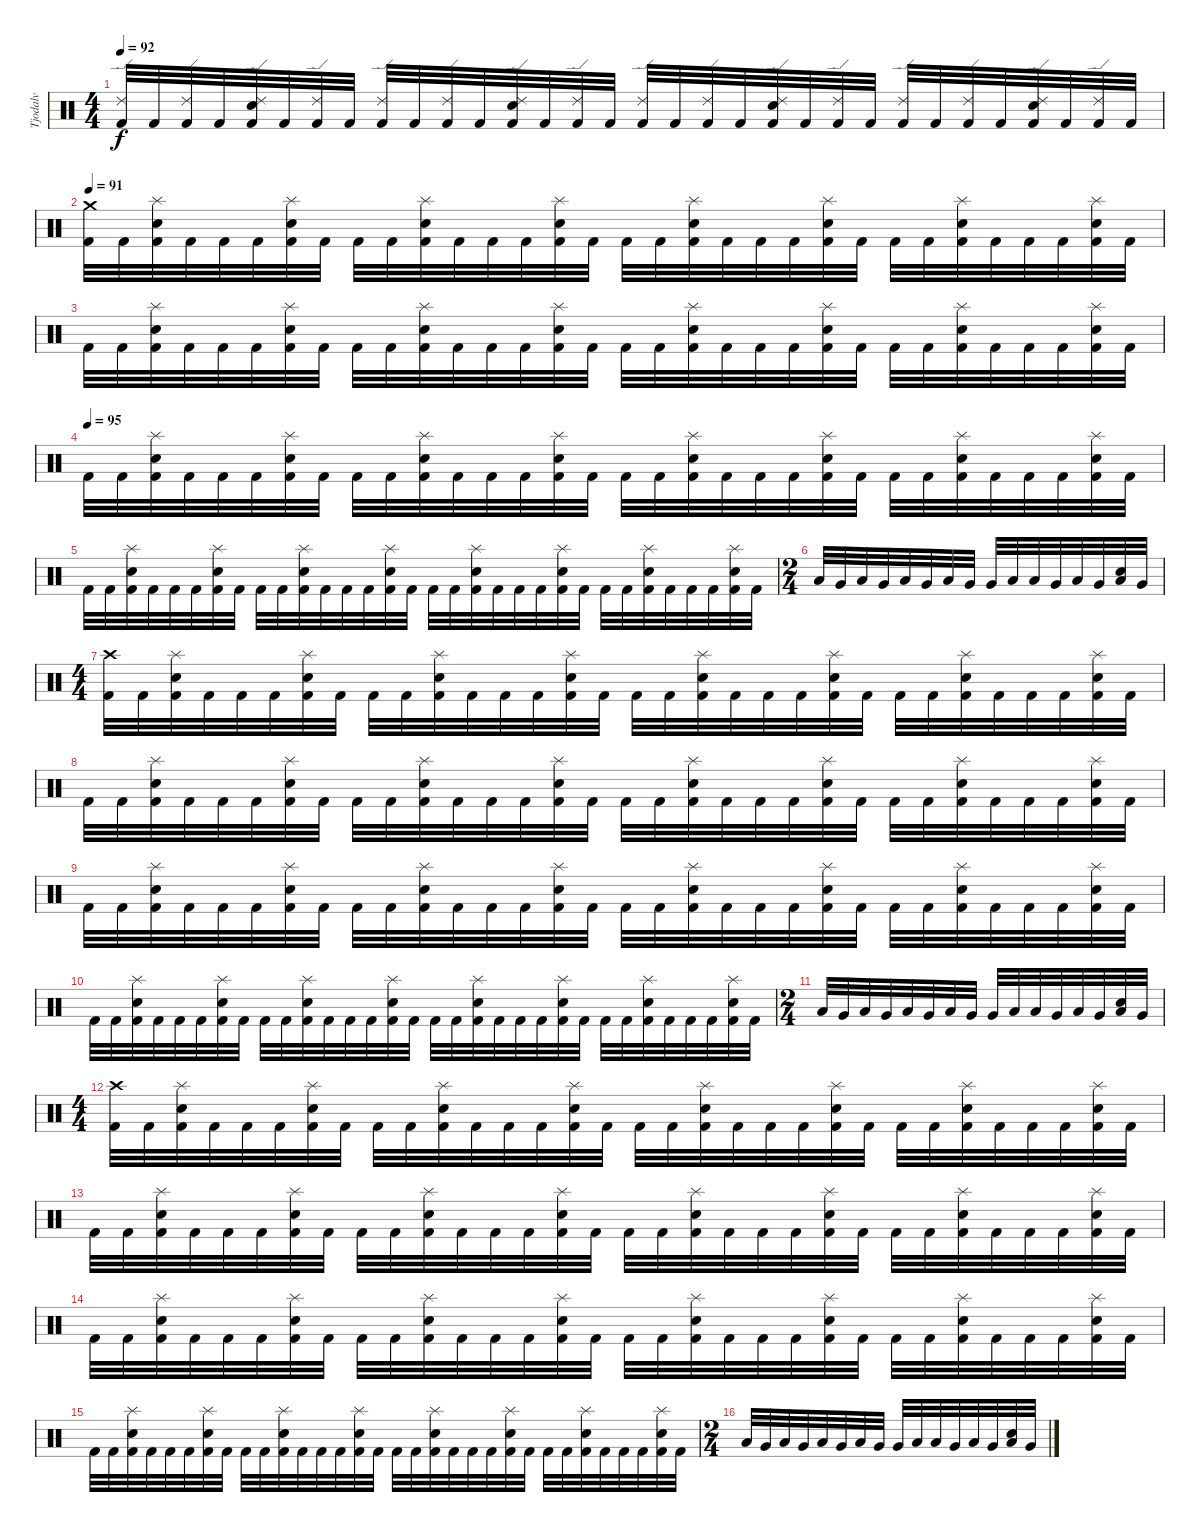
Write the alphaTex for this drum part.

\track ("Tjodalv" "Tjodalv") {instrument percussion}
\staff {score}
\articulation defaults
\ts (4 4)
\tempo 92
\clef neutral
\ks c
("Kick (hit) 2" "Ride (edge) 2").32{dy f} "Kick (hit) 2".32 ("Kick (hit) 2" "Ride (edge) 2").32 "Kick (hit) 2".32 ("Kick (hit) 2" "Snare (hit) 2" "Ride (edge) 2").32 "Kick (hit) 2".32 ("Kick (hit) 2" "Ride (edge) 2").32 "Kick (hit) 2".32 ("Kick (hit) 2" "Ride (edge) 2").32 "Kick (hit) 2".32 ("Kick (hit) 2" "Ride (edge) 2").32 "Kick (hit) 2".32 ("Kick (hit) 2" "Snare (hit) 2" "Ride (edge) 2").32 "Kick (hit) 2".32 ("Kick (hit) 2" "Ride (edge) 2").32 "Kick (hit) 2".32 ("Kick (hit) 2" "Ride (edge) 2").32 "Kick (hit) 2".32 ("Kick (hit) 2" "Ride (edge) 2").32 "Kick (hit) 2".32 ("Kick (hit) 2" "Snare (hit) 2" "Ride (edge) 2").32 "Kick (hit) 2".32 ("Kick (hit) 2" "Ride (edge) 2").32 "Kick (hit) 2".32 ("Kick (hit) 2" "Ride (edge) 2").32 "Kick (hit) 2".32 ("Kick (hit) 2" "Ride (edge) 2").32 "Kick (hit) 2".32 ("Kick (hit) 2" "Snare (hit) 2" "Ride (edge) 2").32 "Kick (hit) 2".32 ("Kick (hit) 2" "Ride (edge) 2").32 "Kick (hit) 2".32 |
\tempo 91
("Kick (hit) 2" "Crash medium (hit)").32 "Kick (hit) 2".32 ("Kick (hit) 2" "Snare (hit) 2" "Splash (hit)").32 "Kick (hit) 2".32 "Kick (hit) 2".32 "Kick (hit) 2".32 ("Kick (hit) 2" "Snare (hit) 2" "Splash (hit)").32 "Kick (hit) 2".32 "Kick (hit) 2".32 "Kick (hit) 2".32 ("Kick (hit) 2" "Snare (hit) 2" "Splash (hit)").32 "Kick (hit) 2".32 "Kick (hit) 2".32 "Kick (hit) 2".32 ("Kick (hit) 2" "Snare (hit) 2" "Splash (hit)").32 "Kick (hit) 2".32 "Kick (hit) 2".32 "Kick (hit) 2".32 ("Kick (hit) 2" "Snare (hit) 2" "Splash (hit)").32 "Kick (hit) 2".32 "Kick (hit) 2".32 "Kick (hit) 2".32 ("Kick (hit) 2" "Snare (hit) 2" "Splash (hit)").32 "Kick (hit) 2".32 "Kick (hit) 2".32 "Kick (hit) 2".32 ("Kick (hit) 2" "Snare (hit) 2" "Splash (hit)").32 "Kick (hit) 2".32 "Kick (hit) 2".32 "Kick (hit) 2".32 ("Kick (hit) 2" "Snare (hit) 2" "Splash (hit)").32 "Kick (hit) 2".32 |
"Kick (hit) 2".32 "Kick (hit) 2".32 ("Kick (hit) 2" "Snare (hit) 2" "Splash (hit)").32 "Kick (hit) 2".32 "Kick (hit) 2".32 "Kick (hit) 2".32 ("Kick (hit) 2" "Snare (hit) 2" "Splash (hit)").32 "Kick (hit) 2".32 "Kick (hit) 2".32 "Kick (hit) 2".32 ("Kick (hit) 2" "Snare (hit) 2" "Splash (hit)").32 "Kick (hit) 2".32 "Kick (hit) 2".32 "Kick (hit) 2".32 ("Kick (hit) 2" "Snare (hit) 2" "Splash (hit)").32 "Kick (hit) 2".32 "Kick (hit) 2".32 "Kick (hit) 2".32 ("Kick (hit) 2" "Snare (hit) 2" "Splash (hit)").32 "Kick (hit) 2".32 "Kick (hit) 2".32 "Kick (hit) 2".32 ("Kick (hit) 2" "Snare (hit) 2" "Splash (hit)").32 "Kick (hit) 2".32 "Kick (hit) 2".32 "Kick (hit) 2".32 ("Kick (hit) 2" "Snare (hit) 2" "Splash (hit)").32 "Kick (hit) 2".32 "Kick (hit) 2".32 "Kick (hit) 2".32 ("Kick (hit) 2" "Snare (hit) 2" "Splash (hit)").32 "Kick (hit) 2".32 |
\tempo (95)
"Kick (hit) 2".32 "Kick (hit) 2".32 ("Kick (hit) 2" "Snare (hit) 2" "Splash (hit)").32 "Kick (hit) 2".32 "Kick (hit) 2".32 "Kick (hit) 2".32 ("Kick (hit) 2" "Snare (hit) 2" "Splash (hit)").32 "Kick (hit) 2".32 "Kick (hit) 2".32 "Kick (hit) 2".32 ("Kick (hit) 2" "Snare (hit) 2" "Splash (hit)").32 "Kick (hit) 2".32 "Kick (hit) 2".32 "Kick (hit) 2".32 ("Kick (hit) 2" "Snare (hit) 2" "Splash (hit)").32 "Kick (hit) 2".32 "Kick (hit) 2".32 "Kick (hit) 2".32 ("Kick (hit) 2" "Snare (hit) 2" "Splash (hit)").32 "Kick (hit) 2".32 "Kick (hit) 2".32 "Kick (hit) 2".32 ("Kick (hit) 2" "Snare (hit) 2" "Splash (hit)").32 "Kick (hit) 2".32 "Kick (hit) 2".32 "Kick (hit) 2".32 ("Kick (hit) 2" "Snare (hit) 2" "Splash (hit)").32 "Kick (hit) 2".32 "Kick (hit) 2".32 "Kick (hit) 2".32 ("Kick (hit) 2" "Snare (hit) 2" "Splash (hit)").32 "Kick (hit) 2".32 |
"Kick (hit) 2".32 "Kick (hit) 2".32 ("Kick (hit) 2" "Snare (hit) 2" "Splash (hit)").32 "Kick (hit) 2".32 "Kick (hit) 2".32 "Kick (hit) 2".32 ("Kick (hit) 2" "Snare (hit) 2" "Splash (hit)").32 "Kick (hit) 2".32 "Kick (hit) 2".32 "Kick (hit) 2".32 ("Kick (hit) 2" "Snare (hit) 2" "Splash (hit)").32 "Kick (hit) 2".32 "Kick (hit) 2".32 "Kick (hit) 2".32 ("Kick (hit) 2" "Snare (hit) 2" "Splash (hit)").32 "Kick (hit) 2".32 "Kick (hit) 2".32 "Kick (hit) 2".32 ("Kick (hit) 2" "Snare (hit) 2" "Splash (hit)").32 "Kick (hit) 2".32 "Kick (hit) 2".32 "Kick (hit) 2".32 ("Kick (hit) 2" "Snare (hit) 2" "Splash (hit)").32 "Kick (hit) 2".32 "Kick (hit) 2".32 "Kick (hit) 2".32 ("Kick (hit) 2" "Snare (hit) 2" "Splash (hit)").32 "Kick (hit) 2".32 "Kick (hit) 2".32 "Kick (hit) 2".32 ("Kick (hit) 2" "Snare (hit) 2" "Splash (hit)").32 "Kick (hit) 2".32 |
\ts (2 4)
"Low Tom (hit)".32 "Very Low Tom (hit)".32 "Low Floor Tom (hit)".32 "Very Low Tom (hit)".32 "Low Tom (hit)".32 "Very Low Tom (hit)".32 "Low Floor Tom (hit)".32 "Very Low Tom (hit)".32 "Very Low Tom (hit)".32 "Low Tom (hit)".32 "Low Floor Tom (hit)".32 "Very Low Tom (hit)".32 "Low Floor Tom (hit)".32 "Very Low Tom (hit)".32 ("Low Tom (hit)" "Snare (hit) 2").32 "Very Low Tom (hit)".32 |
\ts (4 4)
("Kick (hit) 2" "Crash high (hit)").32 "Kick (hit) 2".32 ("Kick (hit) 2" "Snare (hit) 2" "Splash (hit)").32 "Kick (hit) 2".32 "Kick (hit) 2".32 "Kick (hit) 2".32 ("Kick (hit) 2" "Snare (hit) 2" "Splash (hit)").32 "Kick (hit) 2".32 "Kick (hit) 2".32 "Kick (hit) 2".32 ("Kick (hit) 2" "Snare (hit) 2" "Splash (hit)").32 "Kick (hit) 2".32 "Kick (hit) 2".32 "Kick (hit) 2".32 ("Kick (hit) 2" "Snare (hit) 2" "Splash (hit)").32 "Kick (hit) 2".32 "Kick (hit) 2".32 "Kick (hit) 2".32 ("Kick (hit) 2" "Snare (hit) 2" "Splash (hit)").32 "Kick (hit) 2".32 "Kick (hit) 2".32 "Kick (hit) 2".32 ("Kick (hit) 2" "Snare (hit) 2" "Splash (hit)").32 "Kick (hit) 2".32 "Kick (hit) 2".32 "Kick (hit) 2".32 ("Kick (hit) 2" "Snare (hit) 2" "Splash (hit)").32 "Kick (hit) 2".32 "Kick (hit) 2".32 "Kick (hit) 2".32 ("Kick (hit) 2" "Snare (hit) 2" "Splash (hit)").32 "Kick (hit) 2".32 |
"Kick (hit) 2".32 "Kick (hit) 2".32 ("Kick (hit) 2" "Snare (hit) 2" "Splash (hit)").32 "Kick (hit) 2".32 "Kick (hit) 2".32 "Kick (hit) 2".32 ("Kick (hit) 2" "Snare (hit) 2" "Splash (hit)").32 "Kick (hit) 2".32 "Kick (hit) 2".32 "Kick (hit) 2".32 ("Kick (hit) 2" "Snare (hit) 2" "Splash (hit)").32 "Kick (hit) 2".32 "Kick (hit) 2".32 "Kick (hit) 2".32 ("Kick (hit) 2" "Snare (hit) 2" "Splash (hit)").32 "Kick (hit) 2".32 "Kick (hit) 2".32 "Kick (hit) 2".32 ("Kick (hit) 2" "Snare (hit) 2" "Splash (hit)").32 "Kick (hit) 2".32 "Kick (hit) 2".32 "Kick (hit) 2".32 ("Kick (hit) 2" "Snare (hit) 2" "Splash (hit)").32 "Kick (hit) 2".32 "Kick (hit) 2".32 "Kick (hit) 2".32 ("Kick (hit) 2" "Snare (hit) 2" "Splash (hit)").32 "Kick (hit) 2".32 "Kick (hit) 2".32 "Kick (hit) 2".32 ("Kick (hit) 2" "Snare (hit) 2" "Splash (hit)").32 "Kick (hit) 2".32 |
"Kick (hit) 2".32 "Kick (hit) 2".32 ("Kick (hit) 2" "Snare (hit) 2" "Splash (hit)").32 "Kick (hit) 2".32 "Kick (hit) 2".32 "Kick (hit) 2".32 ("Kick (hit) 2" "Snare (hit) 2" "Splash (hit)").32 "Kick (hit) 2".32 "Kick (hit) 2".32 "Kick (hit) 2".32 ("Kick (hit) 2" "Snare (hit) 2" "Splash (hit)").32 "Kick (hit) 2".32 "Kick (hit) 2".32 "Kick (hit) 2".32 ("Kick (hit) 2" "Snare (hit) 2" "Splash (hit)").32 "Kick (hit) 2".32 "Kick (hit) 2".32 "Kick (hit) 2".32 ("Kick (hit) 2" "Snare (hit) 2" "Splash (hit)").32 "Kick (hit) 2".32 "Kick (hit) 2".32 "Kick (hit) 2".32 ("Kick (hit) 2" "Snare (hit) 2" "Splash (hit)").32 "Kick (hit) 2".32 "Kick (hit) 2".32 "Kick (hit) 2".32 ("Kick (hit) 2" "Snare (hit) 2" "Splash (hit)").32 "Kick (hit) 2".32 "Kick (hit) 2".32 "Kick (hit) 2".32 ("Kick (hit) 2" "Snare (hit) 2" "Splash (hit)").32 "Kick (hit) 2".32 |
"Kick (hit) 2".32 "Kick (hit) 2".32 ("Kick (hit) 2" "Snare (hit) 2" "Splash (hit)").32 "Kick (hit) 2".32 "Kick (hit) 2".32 "Kick (hit) 2".32 ("Kick (hit) 2" "Snare (hit) 2" "Splash (hit)").32 "Kick (hit) 2".32 "Kick (hit) 2".32 "Kick (hit) 2".32 ("Kick (hit) 2" "Snare (hit) 2" "Splash (hit)").32 "Kick (hit) 2".32 "Kick (hit) 2".32 "Kick (hit) 2".32 ("Kick (hit) 2" "Snare (hit) 2" "Splash (hit)").32 "Kick (hit) 2".32 "Kick (hit) 2".32 "Kick (hit) 2".32 ("Kick (hit) 2" "Snare (hit) 2" "Splash (hit)").32 "Kick (hit) 2".32 "Kick (hit) 2".32 "Kick (hit) 2".32 ("Kick (hit) 2" "Snare (hit) 2" "Splash (hit)").32 "Kick (hit) 2".32 "Kick (hit) 2".32 "Kick (hit) 2".32 ("Kick (hit) 2" "Snare (hit) 2" "Splash (hit)").32 "Kick (hit) 2".32 "Kick (hit) 2".32 "Kick (hit) 2".32 ("Kick (hit) 2" "Snare (hit) 2" "Splash (hit)").32 "Kick (hit) 2".32 |
\ts (2 4)
"Low Tom (hit)".32 "Very Low Tom (hit)".32 "Low Floor Tom (hit)".32 "Very Low Tom (hit)".32 "Low Tom (hit)".32 "Very Low Tom (hit)".32 "Low Floor Tom (hit)".32 "Very Low Tom (hit)".32 "Very Low Tom (hit)".32 "Low Tom (hit)".32 "Low Floor Tom (hit)".32 "Very Low Tom (hit)".32 "Low Floor Tom (hit)".32 "Very Low Tom (hit)".32 ("Low Tom (hit)" "Snare (hit) 2").32 "Very Low Tom (hit)".32 |
\ts (4 4)
("Kick (hit) 2" "Crash high (hit)").32 "Kick (hit) 2".32 ("Kick (hit) 2" "Snare (hit) 2" "Splash (hit)").32 "Kick (hit) 2".32 "Kick (hit) 2".32 "Kick (hit) 2".32 ("Kick (hit) 2" "Snare (hit) 2" "Splash (hit)").32 "Kick (hit) 2".32 "Kick (hit) 2".32 "Kick (hit) 2".32 ("Kick (hit) 2" "Snare (hit) 2" "Splash (hit)").32 "Kick (hit) 2".32 "Kick (hit) 2".32 "Kick (hit) 2".32 ("Kick (hit) 2" "Snare (hit) 2" "Splash (hit)").32 "Kick (hit) 2".32 "Kick (hit) 2".32 "Kick (hit) 2".32 ("Kick (hit) 2" "Snare (hit) 2" "Splash (hit)").32 "Kick (hit) 2".32 "Kick (hit) 2".32 "Kick (hit) 2".32 ("Kick (hit) 2" "Snare (hit) 2" "Splash (hit)").32 "Kick (hit) 2".32 "Kick (hit) 2".32 "Kick (hit) 2".32 ("Kick (hit) 2" "Snare (hit) 2" "Splash (hit)").32 "Kick (hit) 2".32 "Kick (hit) 2".32 "Kick (hit) 2".32 ("Kick (hit) 2" "Snare (hit) 2" "Splash (hit)").32 "Kick (hit) 2".32 |
"Kick (hit) 2".32 "Kick (hit) 2".32 ("Kick (hit) 2" "Snare (hit) 2" "Splash (hit)").32 "Kick (hit) 2".32 "Kick (hit) 2".32 "Kick (hit) 2".32 ("Kick (hit) 2" "Snare (hit) 2" "Splash (hit)").32 "Kick (hit) 2".32 "Kick (hit) 2".32 "Kick (hit) 2".32 ("Kick (hit) 2" "Snare (hit) 2" "Splash (hit)").32 "Kick (hit) 2".32 "Kick (hit) 2".32 "Kick (hit) 2".32 ("Kick (hit) 2" "Snare (hit) 2" "Splash (hit)").32 "Kick (hit) 2".32 "Kick (hit) 2".32 "Kick (hit) 2".32 ("Kick (hit) 2" "Snare (hit) 2" "Splash (hit)").32 "Kick (hit) 2".32 "Kick (hit) 2".32 "Kick (hit) 2".32 ("Kick (hit) 2" "Snare (hit) 2" "Splash (hit)").32 "Kick (hit) 2".32 "Kick (hit) 2".32 "Kick (hit) 2".32 ("Kick (hit) 2" "Snare (hit) 2" "Splash (hit)").32 "Kick (hit) 2".32 "Kick (hit) 2".32 "Kick (hit) 2".32 ("Kick (hit) 2" "Snare (hit) 2" "Splash (hit)").32 "Kick (hit) 2".32 |
"Kick (hit) 2".32 "Kick (hit) 2".32 ("Kick (hit) 2" "Snare (hit) 2" "Splash (hit)").32 "Kick (hit) 2".32 "Kick (hit) 2".32 "Kick (hit) 2".32 ("Kick (hit) 2" "Snare (hit) 2" "Splash (hit)").32 "Kick (hit) 2".32 "Kick (hit) 2".32 "Kick (hit) 2".32 ("Kick (hit) 2" "Snare (hit) 2" "Splash (hit)").32 "Kick (hit) 2".32 "Kick (hit) 2".32 "Kick (hit) 2".32 ("Kick (hit) 2" "Snare (hit) 2" "Splash (hit)").32 "Kick (hit) 2".32 "Kick (hit) 2".32 "Kick (hit) 2".32 ("Kick (hit) 2" "Snare (hit) 2" "Splash (hit)").32 "Kick (hit) 2".32 "Kick (hit) 2".32 "Kick (hit) 2".32 ("Kick (hit) 2" "Snare (hit) 2" "Splash (hit)").32 "Kick (hit) 2".32 "Kick (hit) 2".32 "Kick (hit) 2".32 ("Kick (hit) 2" "Snare (hit) 2" "Splash (hit)").32 "Kick (hit) 2".32 "Kick (hit) 2".32 "Kick (hit) 2".32 ("Kick (hit) 2" "Snare (hit) 2" "Splash (hit)").32 "Kick (hit) 2".32 |
"Kick (hit) 2".32 "Kick (hit) 2".32 ("Kick (hit) 2" "Snare (hit) 2" "Splash (hit)").32 "Kick (hit) 2".32 "Kick (hit) 2".32 "Kick (hit) 2".32 ("Kick (hit) 2" "Snare (hit) 2" "Splash (hit)").32 "Kick (hit) 2".32 "Kick (hit) 2".32 "Kick (hit) 2".32 ("Kick (hit) 2" "Snare (hit) 2" "Splash (hit)").32 "Kick (hit) 2".32 "Kick (hit) 2".32 "Kick (hit) 2".32 ("Kick (hit) 2" "Snare (hit) 2" "Splash (hit)").32 "Kick (hit) 2".32 "Kick (hit) 2".32 "Kick (hit) 2".32 ("Kick (hit) 2" "Snare (hit) 2" "Splash (hit)").32 "Kick (hit) 2".32 "Kick (hit) 2".32 "Kick (hit) 2".32 ("Kick (hit) 2" "Snare (hit) 2" "Splash (hit)").32 "Kick (hit) 2".32 "Kick (hit) 2".32 "Kick (hit) 2".32 ("Kick (hit) 2" "Snare (hit) 2" "Splash (hit)").32 "Kick (hit) 2".32 "Kick (hit) 2".32 "Kick (hit) 2".32 ("Kick (hit) 2" "Snare (hit) 2" "Splash (hit)").32 "Kick (hit) 2".32 |
\ts (2 4)
"Low Tom (hit)".32 "Very Low Tom (hit)".32 "Low Floor Tom (hit)".32 "Very Low Tom (hit)".32 "Low Tom (hit)".32 "Very Low Tom (hit)".32 "Low Floor Tom (hit)".32 "Very Low Tom (hit)".32 "Very Low Tom (hit)".32 "Low Tom (hit)".32 "Low Floor Tom (hit)".32 "Very Low Tom (hit)".32 "Low Floor Tom (hit)".32 "Very Low Tom (hit)".32 ("Low Tom (hit)" "Snare (hit) 2").32 "Very Low Tom (hit)".32
